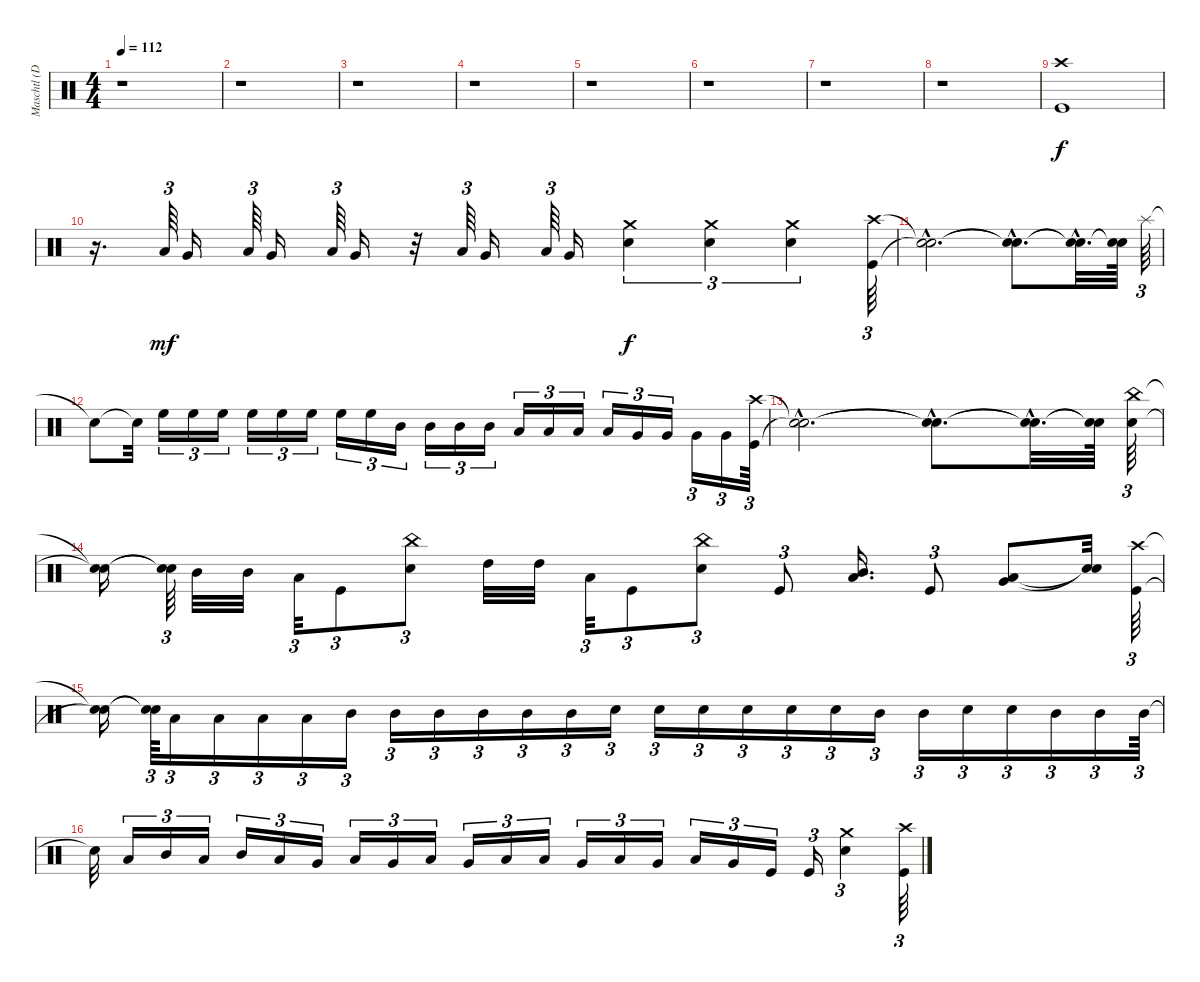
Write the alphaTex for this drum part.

\track ("Maschtl (Drums)" "Maschtl (D") {instrument percussion}
\staff {score}
\articulation defaults
\ts (4 4)
\tempo 112
\clef neutral
\ks c
r.1{dy f} |
r.1 |
r.1 |
r.1 |
r.1 |
r.1 |
r.1 |
r.1 |
("Crash high (hit)" "Kick (hit)").1 |
r.16{d} "Low Tom (hit)".64{tu (3 2) dy mf} "Very Low Tom (hit)".16 "Low Tom (hit)".64{tu (3 2)} "Very Low Tom (hit)".16 "Low Tom (hit)".64{tu (3 2)} "Very Low Tom (hit)".16 r.32 "Low Tom (hit)".64{tu (3 2)} "Very Low Tom (hit)".16 "Low Tom (hit)".64{tu (3 2)} "Very Low Tom (hit)".16 ("Crash medium (hit)" "Electric Snare (hit)").4{tu (3 2) dy f} ("Crash medium (hit)" "Electric Snare (hit)").4{tu (3 2)} ("Crash medium (hit)" "Electric Snare (hit)").4{tu (3 2)} ("Crash high (hit)" "Kick (hit)").64{tu (3 2)} |
("Snare (hit)"{hac t} "Snare (hit)"{hac t}).2{d} ("Snare (hit)"{hac t} "Snare (hit)"{hac t}).8{d} ("Snare (hit)"{hac t} "Snare (hit)"{hac t}).32{d} ("Snare (hit)"{t} "Snare (hit)"{t}).64 "Splash (hit)".64{tu (3 2)} |
"Snare (hit)"{t}.8 "Snare (hit)"{t}.32 "High Floor Tom (hit)".16{tu (3 2)} "High Floor Tom (hit)".16{tu (3 2)} "High Floor Tom (hit)".16{tu (3 2)} "High Floor Tom (hit)".16{tu (3 2)} "High Floor Tom (hit)".16{tu (3 2)} "High Floor Tom (hit)".16{tu (3 2)} "High Floor Tom (hit)".16{tu (3 2)} "High Floor Tom (hit)".16{tu (3 2)} "Mid Tom (hit)".16{tu (3 2)} "Mid Tom (hit)".16{tu (3 2)} "Mid Tom (hit)".16{tu (3 2)} "Mid Tom (hit)".16{tu (3 2)} "Low Tom (hit)".16{tu (3 2)} "Low Tom (hit)".16{tu (3 2)} "Low Tom (hit)".16{tu (3 2)} "Low Tom (hit)".16{tu (3 2)} "Very Low Tom (hit)".16{tu (3 2)} "Very Low Tom (hit)".16{tu (3 2)} "Very Low Tom (hit)".16{tu (3 2)} "Very Low Tom (hit)".16{tu (3 2)} ("Crash high (hit)" "Kick (hit)").64{tu (3 2)} |
("Snare (hit)"{hac t} "Snare (hit)"{hac t}).2{d} ("Snare (hit)"{hac t} "Snare (hit)"{hac t}).8{d} ("Snare (hit)"{hac t} "Snare (hit)"{hac t}).32{d} ("Snare (hit)"{t} "Snare (hit)"{t}).64 ("China (hit)" "Electric Snare (hit)").64{tu (3 2)} |
("Snare (hit)"{t} "Snare (hit)"{t}).16 ("Snare (hit)"{t} "Snare (hit)"{t}).64{tu (3 2)} "Mid Tom (hit)".32 "Mid Tom (hit)".32 "Low Tom (hit)".32{tu (3 2)} "Kick (hit)".8{tu (3 2)} ("China (hit)" "Electric Snare (hit)").8{tu (3 2)} "High Tom (hit)".32 "High Tom (hit)".32 "Low Tom (hit)".32{tu (3 2)} "Kick (hit)".8{tu (3 2)} ("China (hit)" "Electric Snare (hit)").8{tu (3 2)} "Kick (hit)".8{tu (3 2)} ("Low Tom (hit)" "Mid Tom (hit)").16{d} "Kick (hit)".8{tu (3 2)} ("Very Low Tom (hit)" "Low Tom (hit)").8 ("Snare (hit)"{t} "Snare (hit)"{t}).32 ("Crash high (hit)" "Kick (hit)").64{tu (3 2)} |
("Snare (hit)"{t} "Snare (hit)"{t}).16 ("Snare (hit)"{t} "Snare (hit)"{t}).64{tu (3 2)} "Low Tom (hit)".16{tu (3 2)} "Low Tom (hit)".16{tu (3 2)} "Low Tom (hit)".16{tu (3 2)} "Low Tom (hit)".16{tu (3 2)} "Mid Tom (hit)".16{tu (3 2)} "Mid Tom (hit)".16{tu (3 2)} "Mid Tom (hit)".16{tu (3 2)} "Mid Tom (hit)".16{tu (3 2)} "Mid Tom (hit)".16{tu (3 2)} "Mid Tom (hit)".16{tu (3 2)} "Electric Snare (hit)".16{tu (3 2)} "Electric Snare (hit)".16{tu (3 2)} "Electric Snare (hit)".16{tu (3 2)} "Electric Snare (hit)".16{tu (3 2)} "Electric Snare (hit)".16{tu (3 2)} "Electric Snare (hit)".16{tu (3 2)} "Mid Tom (hit)".16{tu (3 2)} "Mid Tom (hit)".16{tu (3 2)} "Electric Snare (hit)".16{tu (3 2)} "Electric Snare (hit)".16{tu (3 2)} "Mid Tom (hit)".16{tu (3 2)} "Mid Tom (hit)".16{tu (3 2)} "Mid Tom (hit)".64{tu (3 2)} |
"Snare (hit)"{t}.32 "Low Tom (hit)".16{tu (3 2)} "Mid Tom (hit)".16{tu (3 2)} "Low Tom (hit)".16{tu (3 2)} "Mid Tom (hit)".16{tu (3 2)} "Low Tom (hit)".16{tu (3 2)} "Very Low Tom (hit)".16{tu (3 2)} "Low Tom (hit)".16{tu (3 2)} "Very Low Tom (hit)".16{tu (3 2)} "Low Tom (hit)".16{tu (3 2)} "Very Low Tom (hit)".16{tu (3 2)} "Low Tom (hit)".16{tu (3 2)} "Low Floor Tom (hit)".16{tu (3 2)} "Very Low Tom (hit)".16{tu (3 2)} "Low Floor Tom (hit)".16{tu (3 2)} "Very Low Tom (hit)".16{tu (3 2)} "Low Floor Tom (hit)".16{tu (3 2)} "Very Low Tom (hit)".16{tu (3 2)} "Kick (hit)".16{tu (3 2)} "Kick (hit)".16{tu (3 2)} ("Crash medium (hit)" "Electric Snare (hit)").4{tu (3 2)} ("Crash high (hit)" "Kick (hit)").64{tu (3 2)}
